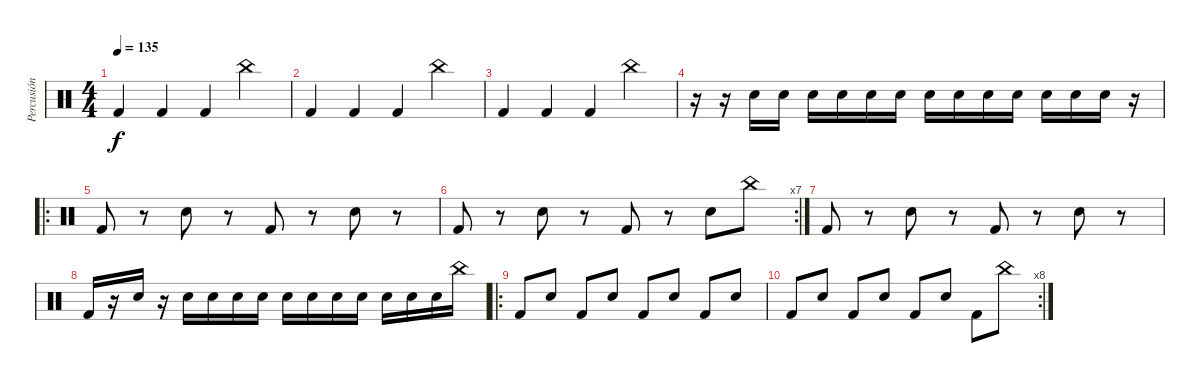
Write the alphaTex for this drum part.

\track ("Percusión" "Percusión") {instrument percussion}
\staff {score}
\articulation defaults
\ts (4 4)
\tempo 135
\clef neutral
\ks c "Kick (hit) 2".4{dy f} "Kick (hit) 2".4 "Kick (hit) 2".4 "China (hit)".4
|
"Kick (hit) 2".4 "Kick (hit) 2".4 "Kick (hit) 2".4 "China (hit)".4 |
"Kick (hit) 2".4 "Kick (hit) 2".4 "Kick (hit) 2".4 "China (hit)".4 |
r.16 r.16 "Electric Snare (hit)".16 "Electric Snare (hit)".16 "Electric Snare (hit)".16 "Electric Snare (hit)".16 "Electric Snare (hit)".16 "Electric Snare (hit)".16 "Electric Snare (hit)".16 "Electric Snare (hit)".16 "Electric Snare (hit)".16 "Electric Snare (hit)".16 "Electric Snare (hit)".16 "Electric Snare (hit)".16 "Electric Snare (hit)".16 r.16 |
\ro "Kick (hit) 2".8
r.8 "Electric Snare (hit)".8 r.8 "Kick (hit) 2".8 r.8 "Electric Snare (hit)".8 r.8 |
\rc 7 "Kick (hit) 2".8
r.8 "Electric Snare (hit)".8 r.8 "Kick (hit) 2".8 r.8 "Electric Snare (hit)".8 "China (hit)".8 |
"Kick (hit) 2".8 r.8 "Electric Snare (hit)".8 r.8 "Kick (hit) 2".8 r.8 "Electric Snare (hit)".8 r.8 |
"Kick (hit) 2".16 r.16 "Electric Snare (hit)".16 r.16 "Electric Snare (hit)".16 "Electric Snare (hit)".16 "Electric Snare (hit)".16 "Electric Snare (hit)".16 "Electric Snare (hit)".16 "Electric Snare (hit)".16 "Electric Snare (hit)".16 "Electric Snare (hit)".16 "Electric Snare (hit)".16 "Electric Snare (hit)".16 "Electric Snare (hit)".16 "China (hit)".16 |
\ro "Kick (hit) 2".8 "Electric Snare (hit)".8 "Kick (hit) 2".8 "Electric Snare (hit)".8 "Kick (hit) 2".8 "Electric Snare (hit)".8 "Kick (hit) 2".8 "Electric Snare (hit)".8
|
\rc 8 "Kick (hit) 2".8 "Electric Snare (hit)".8 "Kick (hit) 2".8 "Electric Snare (hit)".8 "Kick (hit) 2".8 "Electric Snare (hit)".8 "Kick (hit) 2".8 "China (hit)".8
